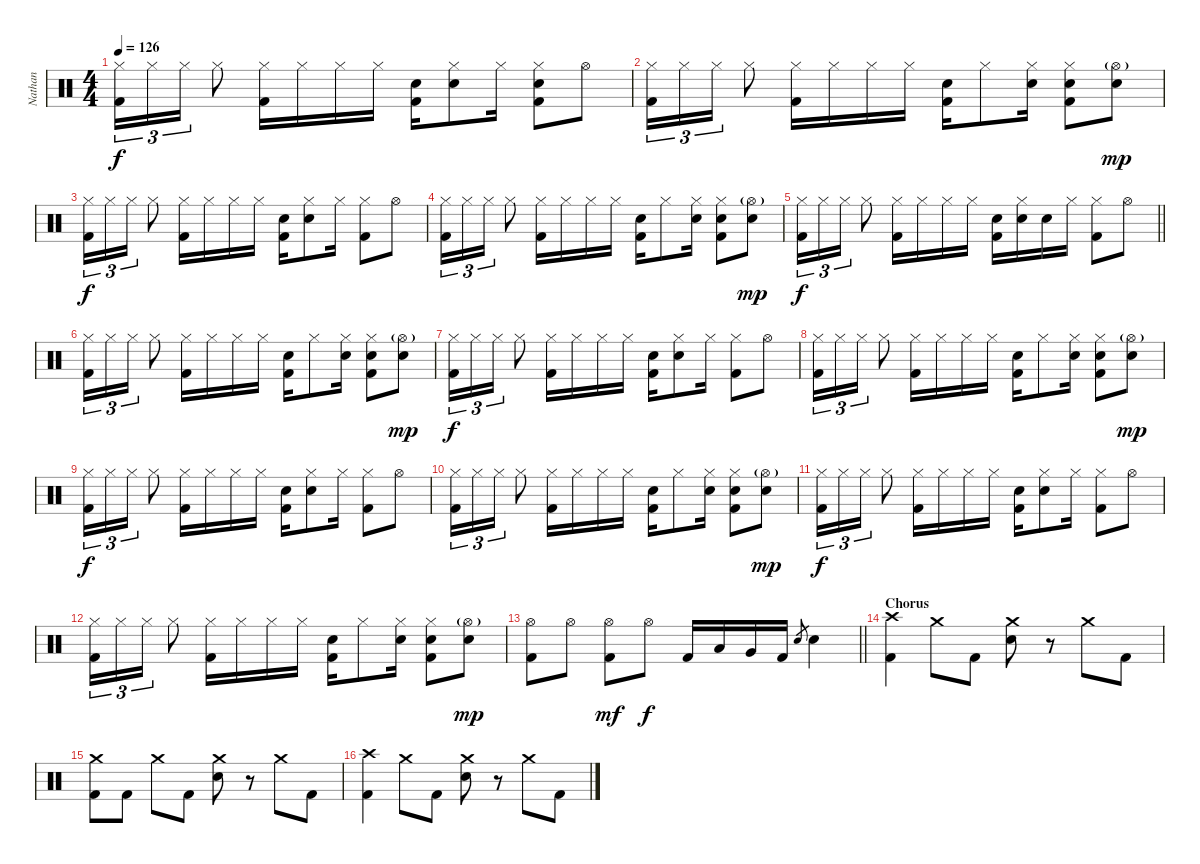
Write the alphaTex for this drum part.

\track ("Nathan" "Nathan") {instrument percussion}
\staff {score}
\articulation defaults
\ts (4 4)
\tempo 126
\clef neutral
\ks c
("Hi-Hat (closed)" "Kick (hit) 2").16{tu (3 2) dy f} "Hi-Hat (closed)".16{tu (3 2)} "Hi-Hat (closed)".16{tu (3 2)} "Hi-Hat (closed)".8 ("Hi-Hat (closed)" "Kick (hit) 2").16 "Hi-Hat (closed)".16 "Hi-Hat (closed)".16 "Hi-Hat (closed)".16 ("Electric Snare (hit)" "Kick (hit) 2").16 ("Hi-Hat (closed)" "Electric Snare (hit)").8 "Hi-Hat (closed)".16 ("Hi-Hat (closed)" "Electric Snare (hit)" "Kick (hit) 2").8 "Hi-Hat (open)".8 |
("Hi-Hat (closed)" "Kick (hit) 2").16{tu (3 2)} "Hi-Hat (closed)".16{tu (3 2)} "Hi-Hat (closed)".16{tu (3 2)} "Hi-Hat (closed)".8 ("Hi-Hat (closed)" "Kick (hit) 2").16 "Hi-Hat (closed)".16 "Hi-Hat (closed)".16 "Hi-Hat (closed)".16 ("Electric Snare (hit)" "Kick (hit) 2").16 "Hi-Hat (closed)".8 ("Hi-Hat (closed)" "Electric Snare (hit)").16 ("Hi-Hat (closed)" "Electric Snare (hit)" "Kick (hit) 2").8 ("Hi-Hat (open)"{g} "Electric Snare (hit)").8{dy mp} |
("Hi-Hat (closed)" "Kick (hit) 2").16{tu (3 2) dy f} "Hi-Hat (closed)".16{tu (3 2)} "Hi-Hat (closed)".16{tu (3 2)} "Hi-Hat (closed)".8 ("Hi-Hat (closed)" "Kick (hit) 2").16 "Hi-Hat (closed)".16 "Hi-Hat (closed)".16 "Hi-Hat (closed)".16 ("Electric Snare (hit)" "Kick (hit) 2").16 ("Hi-Hat (closed)" "Electric Snare (hit)").8 "Hi-Hat (closed)".16 ("Hi-Hat (closed)" "Kick (hit) 2").8 "Hi-Hat (open)".8 |
("Hi-Hat (closed)" "Kick (hit) 2").16{tu (3 2)} "Hi-Hat (closed)".16{tu (3 2)} "Hi-Hat (closed)".16{tu (3 2)} "Hi-Hat (closed)".8 ("Hi-Hat (closed)" "Kick (hit) 2").16 "Hi-Hat (closed)".16 "Hi-Hat (closed)".16 "Hi-Hat (closed)".16 ("Electric Snare (hit)" "Kick (hit) 2").16 "Hi-Hat (closed)".8 ("Hi-Hat (closed)" "Electric Snare (hit)").16 ("Hi-Hat (closed)" "Electric Snare (hit)" "Kick (hit) 2").8 ("Hi-Hat (open)"{g} "Electric Snare (hit)").8{dy mp} |
\barLineRight lightlight
("Hi-Hat (closed)" "Kick (hit) 2").16{tu (3 2) dy f} "Hi-Hat (closed)".16{tu (3 2)} "Hi-Hat (closed)".16{tu (3 2)} "Hi-Hat (closed)".8 ("Hi-Hat (closed)" "Kick (hit) 2").16 "Hi-Hat (closed)".16 "Hi-Hat (closed)".16 "Hi-Hat (closed)".16 ("Electric Snare (hit)" "Kick (hit) 2").16 ("Hi-Hat (closed)" "Electric Snare (hit)").16 "Electric Snare (hit)".16 "Hi-Hat (closed)".16 ("Hi-Hat (closed)" "Kick (hit) 2").8 "Hi-Hat (open)".8 |
\section ("" "")
("Hi-Hat (closed)" "Kick (hit) 2").16{tu (3 2)} "Hi-Hat (closed)".16{tu (3 2)} "Hi-Hat (closed)".16{tu (3 2)} "Hi-Hat (closed)".8 ("Hi-Hat (closed)" "Kick (hit) 2").16 "Hi-Hat (closed)".16 "Hi-Hat (closed)".16 "Hi-Hat (closed)".16 ("Electric Snare (hit)" "Kick (hit) 2").16 "Hi-Hat (closed)".8 ("Hi-Hat (closed)" "Electric Snare (hit)").16 ("Hi-Hat (closed)" "Electric Snare (hit)" "Kick (hit) 2").8 ("Hi-Hat (open)"{g} "Electric Snare (hit)").8{dy mp} |
("Hi-Hat (closed)" "Kick (hit) 2").16{tu (3 2) dy f} "Hi-Hat (closed)".16{tu (3 2)} "Hi-Hat (closed)".16{tu (3 2)} "Hi-Hat (closed)".8 ("Hi-Hat (closed)" "Kick (hit) 2").16 "Hi-Hat (closed)".16 "Hi-Hat (closed)".16 "Hi-Hat (closed)".16 ("Electric Snare (hit)" "Kick (hit) 2").16 ("Hi-Hat (closed)" "Electric Snare (hit)").8 "Hi-Hat (closed)".16 ("Hi-Hat (closed)" "Kick (hit) 2").8 "Hi-Hat (open)".8 |
("Hi-Hat (closed)" "Kick (hit) 2").16{tu (3 2)} "Hi-Hat (closed)".16{tu (3 2)} "Hi-Hat (closed)".16{tu (3 2)} "Hi-Hat (closed)".8 ("Hi-Hat (closed)" "Kick (hit) 2").16 "Hi-Hat (closed)".16 "Hi-Hat (closed)".16 "Hi-Hat (closed)".16 ("Electric Snare (hit)" "Kick (hit) 2").16 "Hi-Hat (closed)".8 ("Hi-Hat (closed)" "Electric Snare (hit)").16 ("Hi-Hat (closed)" "Electric Snare (hit)" "Kick (hit) 2").8 ("Hi-Hat (open)"{g} "Electric Snare (hit)").8{dy mp} |
("Hi-Hat (closed)" "Kick (hit) 2").16{tu (3 2) dy f} "Hi-Hat (closed)".16{tu (3 2)} "Hi-Hat (closed)".16{tu (3 2)} "Hi-Hat (closed)".8 ("Hi-Hat (closed)" "Kick (hit) 2").16 "Hi-Hat (closed)".16 "Hi-Hat (closed)".16 "Hi-Hat (closed)".16 ("Electric Snare (hit)" "Kick (hit) 2").16 ("Hi-Hat (closed)" "Electric Snare (hit)").8 "Hi-Hat (closed)".16 ("Hi-Hat (closed)" "Kick (hit) 2").8 "Hi-Hat (open)".8 |
("Hi-Hat (closed)" "Kick (hit) 2").16{tu (3 2)} "Hi-Hat (closed)".16{tu (3 2)} "Hi-Hat (closed)".16{tu (3 2)} "Hi-Hat (closed)".8 ("Hi-Hat (closed)" "Kick (hit) 2").16 "Hi-Hat (closed)".16 "Hi-Hat (closed)".16 "Hi-Hat (closed)".16 ("Electric Snare (hit)" "Kick (hit) 2").16 "Hi-Hat (closed)".8 ("Hi-Hat (closed)" "Electric Snare (hit)").16 ("Hi-Hat (closed)" "Electric Snare (hit)" "Kick (hit) 2").8 ("Hi-Hat (open)"{g} "Electric Snare (hit)").8{dy mp} |
("Hi-Hat (closed)" "Kick (hit) 2").16{tu (3 2) dy f} "Hi-Hat (closed)".16{tu (3 2)} "Hi-Hat (closed)".16{tu (3 2)} "Hi-Hat (closed)".8 ("Hi-Hat (closed)" "Kick (hit) 2").16 "Hi-Hat (closed)".16 "Hi-Hat (closed)".16 "Hi-Hat (closed)".16 ("Electric Snare (hit)" "Kick (hit) 2").16 ("Hi-Hat (closed)" "Electric Snare (hit)").8 "Hi-Hat (closed)".16 ("Hi-Hat (closed)" "Kick (hit) 2").8 "Hi-Hat (open)".8 |
("Hi-Hat (closed)" "Kick (hit) 2").16{tu (3 2)} "Hi-Hat (closed)".16{tu (3 2)} "Hi-Hat (closed)".16{tu (3 2)} "Hi-Hat (closed)".8 ("Hi-Hat (closed)" "Kick (hit) 2").16 "Hi-Hat (closed)".16 "Hi-Hat (closed)".16 "Hi-Hat (closed)".16 ("Electric Snare (hit)" "Kick (hit) 2").16 "Hi-Hat (closed)".8 ("Hi-Hat (closed)" "Electric Snare (hit)").16 ("Hi-Hat (closed)" "Electric Snare (hit)" "Kick (hit) 2").8 ("Hi-Hat (open)"{g} "Electric Snare (hit)").8{dy mp} |
\barLineRight lightlight
("Hi-Hat (open)" "Kick (hit) 2").8 "Hi-Hat (open)".8 ("Hi-Hat (open)" "Kick (hit) 2").8{dy mf} "Hi-Hat (open)".8{dy f} "Kick (hit) 2".16 "Low Tom (hit)".16 "Very Low Tom (hit)".16 "Kick (hit) 2".16 "Electric Snare (hit)".8{gr} "Electric Snare (hit)".4 |
\section ("" "Chorus")
("Crash high (hit)" "Kick (hit) 2").4 "Crash medium (hit)".8 "Kick (hit) 2".8 ("Crash medium (hit)" "Electric Snare (hit)").8 r.8 "Crash medium (hit)".8 "Kick (hit) 2".8 |
("Crash medium (hit)" "Kick (hit) 2").8 "Kick (hit) 2".8 "Crash medium (hit)".8 "Kick (hit) 2".8 ("Crash medium (hit)" "Electric Snare (hit)").8 r.8 "Crash medium (hit)".8 "Kick (hit) 2".8 |
("Crash high (hit)" "Kick (hit) 2").4 "Crash medium (hit)".8 "Kick (hit) 2".8 ("Crash medium (hit)" "Electric Snare (hit)").8 r.8 "Crash medium (hit)".8 "Kick (hit) 2".8
